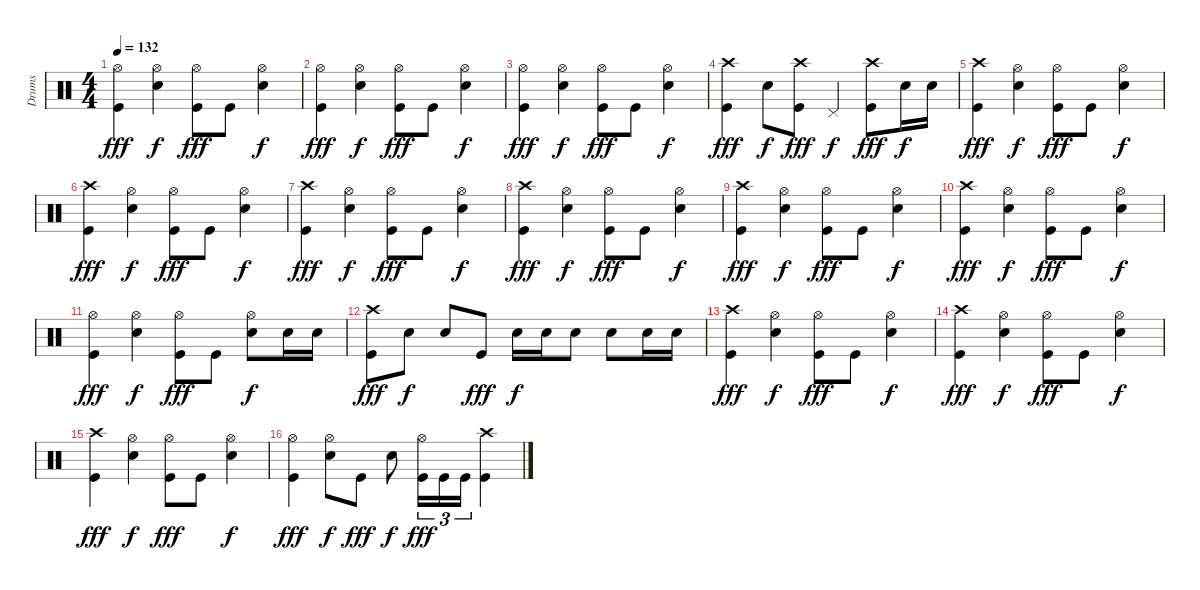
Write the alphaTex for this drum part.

\track ("Drums" "Drums") {instrument percussion}
\staff {score}
\articulation defaults
\ts (4 4)
\tempo 132
\clef neutral
\ks c
("Hi-Hat (open)" "Kick (hit)").4{dy fff} ("Hi-Hat (open)" "Snare (hit) 2").4{dy f} ("Hi-Hat (open)" "Kick (hit)").8{dy fff} "Kick (hit)".8 ("Hi-Hat (open)" "Snare (hit) 2").4{dy f} |
("Hi-Hat (open)" "Kick (hit)").4{dy fff} ("Hi-Hat (open)" "Snare (hit) 2").4{dy f} ("Hi-Hat (open)" "Kick (hit)").8{dy fff} "Kick (hit)".8 ("Hi-Hat (open)" "Snare (hit) 2").4{dy f} |
("Hi-Hat (open)" "Kick (hit)").4{dy fff} ("Hi-Hat (open)" "Snare (hit) 2").4{dy f} ("Hi-Hat (open)" "Kick (hit)").8{dy fff} "Kick (hit)".8 ("Hi-Hat (open)" "Snare (hit) 2").4{dy f} |
("Crash high (hit)" "Kick (hit)").4{dy fff} "Snare (hit) 2".8{dy f} ("Crash high (hit)" "Kick (hit)").8{dy fff} "Pedal Hi-Hat (hit)".4{dy f} ("Crash high (hit)" "Kick (hit)").8{dy fff} "Snare (hit) 2".16{dy f} "Snare (hit) 2".16 |
("Crash high (hit)" "Kick (hit)").4{dy fff} ("Hi-Hat (open)" "Snare (hit) 2").4{dy f} ("Hi-Hat (open)" "Kick (hit)").8{dy fff} "Kick (hit)".8 ("Hi-Hat (open)" "Snare (hit) 2").4{dy f} |
("Crash high (hit)" "Kick (hit)").4{dy fff} ("Hi-Hat (open)" "Snare (hit) 2").4{dy f} ("Hi-Hat (open)" "Kick (hit)").8{dy fff} "Kick (hit)".8 ("Hi-Hat (open)" "Snare (hit) 2").4{dy f} |
("Crash high (hit)" "Kick (hit)").4{dy fff} ("Hi-Hat (open)" "Snare (hit) 2").4{dy f} ("Hi-Hat (open)" "Kick (hit)").8{dy fff} "Kick (hit)".8 ("Hi-Hat (open)" "Snare (hit) 2").4{dy f} |
("Crash high (hit)" "Kick (hit)").4{dy fff} ("Hi-Hat (open)" "Snare (hit) 2").4{dy f} ("Hi-Hat (open)" "Kick (hit)").8{dy fff} "Kick (hit)".8 ("Hi-Hat (open)" "Snare (hit) 2").4{dy f} |
("Crash high (hit)" "Kick (hit)").4{dy fff} ("Hi-Hat (open)" "Snare (hit) 2").4{dy f} ("Hi-Hat (open)" "Kick (hit)").8{dy fff} "Kick (hit)".8 ("Hi-Hat (open)" "Snare (hit) 2").4{dy f} |
("Crash high (hit)" "Kick (hit)").4{dy fff} ("Hi-Hat (open)" "Snare (hit) 2").4{dy f} ("Hi-Hat (open)" "Kick (hit)").8{dy fff} "Kick (hit)".8 ("Hi-Hat (open)" "Snare (hit) 2").4{dy f} |
("Hi-Hat (open)" "Kick (hit)").4{dy fff} ("Hi-Hat (open)" "Snare (hit) 2").4{dy f} ("Hi-Hat (open)" "Kick (hit)").8{dy fff} "Kick (hit)".8 ("Hi-Hat (open)" "Snare (hit) 2").8{dy f} "Snare (hit) 2".16 "Snare (hit) 2".16 |
("Crash high (hit)" "Kick (hit)").8{dy fff} "Snare (hit) 2".8{dy f} "Snare (hit) 2".8 "Kick (hit)".8{dy fff} "Snare (hit) 2".16{dy f} "Snare (hit) 2".16 "Snare (hit) 2".8 "Snare (hit) 2".8 "Snare (hit) 2".16 "Snare (hit) 2".16 |
("Crash high (hit)" "Kick (hit)").4{dy fff} ("Hi-Hat (open)" "Snare (hit) 2").4{dy f} ("Hi-Hat (open)" "Kick (hit)").8{dy fff} "Kick (hit)".8 ("Hi-Hat (open)" "Snare (hit) 2").4{dy f} |
("Crash high (hit)" "Kick (hit)").4{dy fff} ("Hi-Hat (open)" "Snare (hit) 2").4{dy f} ("Hi-Hat (open)" "Kick (hit)").8{dy fff} "Kick (hit)".8 ("Hi-Hat (open)" "Snare (hit) 2").4{dy f} |
("Crash high (hit)" "Kick (hit)").4{dy fff} ("Hi-Hat (open)" "Snare (hit) 2").4{dy f} ("Hi-Hat (open)" "Kick (hit)").8{dy fff} "Kick (hit)".8 ("Hi-Hat (open)" "Snare (hit) 2").4{dy f} |
("Hi-Hat (open)" "Kick (hit)").4{dy fff} ("Hi-Hat (open)" "Snare (hit) 2").8{dy f} "Kick (hit)".8{dy fff} "Snare (hit) 2".8{dy f} ("Hi-Hat (open)" "Kick (hit)").16{tu (3 2) dy fff} "Kick (hit)".16{tu (3 2)} "Kick (hit)".16{tu (3 2)} ("Crash high (hit)" "Kick (hit)").4
